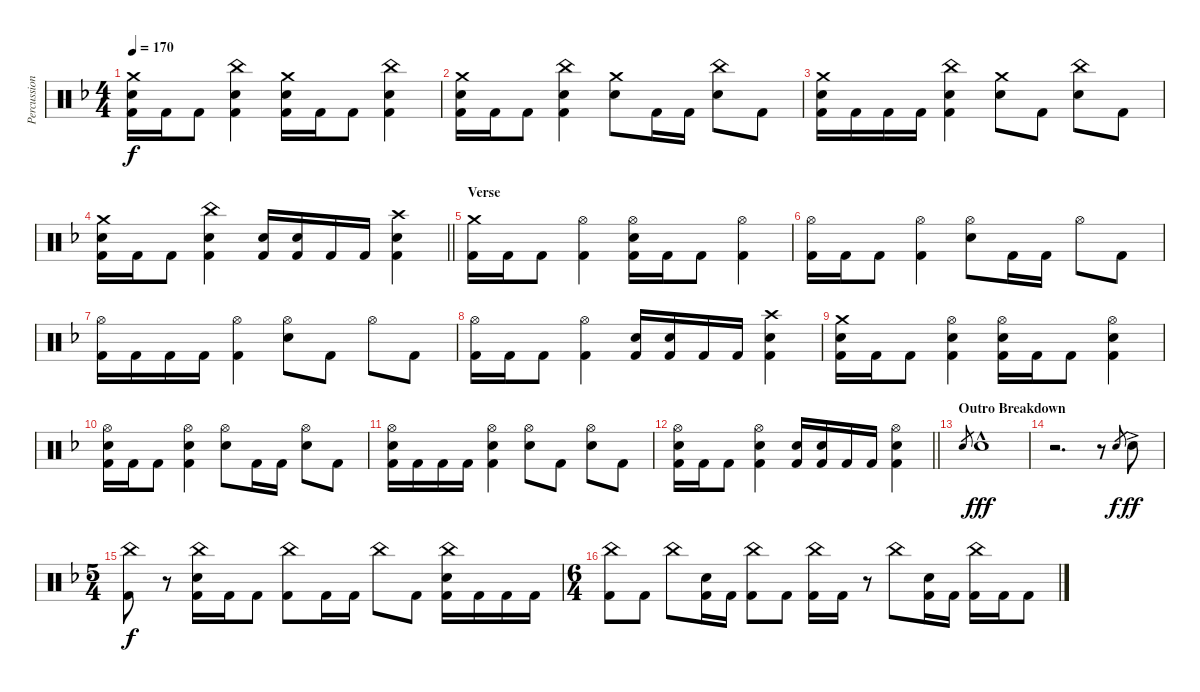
\track ("Percussion" "Percussion") {instrument percussion}
\staff {score}
\articulation defaults
\ts (4 4)
\tempo 170
\clef neutral
\ks dminor
("Crash medium (hit)" "Electric Snare (hit)" "Kick (hit) 2").16{dy f} "Kick (hit) 2".16 "Kick (hit) 2".8 ("China (hit)" "Electric Snare (hit)" "Kick (hit) 2").4 ("Crash medium (hit)" "Electric Snare (hit)" "Kick (hit) 2").16 "Kick (hit) 2".16 "Kick (hit) 2".8 ("China (hit)" "Electric Snare (hit)" "Kick (hit) 2").4 |
("Crash medium (hit)" "Electric Snare (hit)" "Kick (hit) 2").16 "Kick (hit) 2".16 "Kick (hit) 2".8 ("China (hit)" "Electric Snare (hit)" "Kick (hit) 2").4 ("Crash medium (hit)" "Electric Snare (hit)").8 "Kick (hit) 2".16 "Kick (hit) 2".16 ("China (hit)" "Electric Snare (hit)").8 "Kick (hit) 2".8 |
("Crash medium (hit)" "Electric Snare (hit)" "Kick (hit) 2").16 "Kick (hit) 2".16 "Kick (hit) 2".16 "Kick (hit) 2".16 ("China (hit)" "Electric Snare (hit)" "Kick (hit) 2").4 ("Crash medium (hit)" "Electric Snare (hit)").8 "Kick (hit) 2".8 ("China (hit)" "Electric Snare (hit)").8 "Kick (hit) 2".8 |
\barLineRight lightlight
("Crash medium (hit)" "Electric Snare (hit)" "Kick (hit) 2").16 "Kick (hit) 2".16 "Kick (hit) 2".8 ("China (hit)" "Electric Snare (hit)" "Kick (hit) 2").4 ("Electric Snare (hit)" "Kick (hit) 2").16 ("Electric Snare (hit)" "Kick (hit) 2").16 "Kick (hit) 2".16 "Kick (hit) 2".16 ("Crash high (hit)" "Electric Snare (hit)" "Kick (hit) 2").4 |
\section ("" "Verse")
("Crash medium (hit)" "Kick (hit) 2").16 "Kick (hit) 2".16 "Kick (hit) 2".8 ("Hi-Hat (open)" "Kick (hit) 2").4 ("Hi-Hat (open)" "Electric Snare (hit)" "Kick (hit) 2").16 "Kick (hit) 2".16 "Kick (hit) 2".8 ("Hi-Hat (open)" "Kick (hit) 2").4 |
("Hi-Hat (open)" "Kick (hit) 2").16 "Kick (hit) 2".16 "Kick (hit) 2".8 ("Hi-Hat (open)" "Kick (hit) 2").4 ("Hi-Hat (open)" "Electric Snare (hit)").8 "Kick (hit) 2".16 "Kick (hit) 2".16 "Hi-Hat (open)".8 "Kick (hit) 2".8 |
("Hi-Hat (open)" "Kick (hit) 2").16 "Kick (hit) 2".16 "Kick (hit) 2".16 "Kick (hit) 2".16 ("Hi-Hat (open)" "Kick (hit) 2").4 ("Hi-Hat (open)" "Electric Snare (hit)").8 "Kick (hit) 2".8 "Hi-Hat (open)".8 "Kick (hit) 2".8 |
("Hi-Hat (open)" "Kick (hit) 2").16 "Kick (hit) 2".16 "Kick (hit) 2".8 ("Hi-Hat (open)" "Kick (hit) 2").4 ("Electric Snare (hit)" "Kick (hit) 2").16 ("Electric Snare (hit)" "Kick (hit) 2").16 "Kick (hit) 2".16 "Kick (hit) 2".16 ("Crash high (hit)" "Electric Snare (hit)" "Kick (hit) 2").4 |
("Crash medium (hit)" "Electric Snare (hit)" "Kick (hit) 2").16 "Kick (hit) 2".16 "Kick (hit) 2".8 ("Hi-Hat (open)" "Electric Snare (hit)" "Kick (hit) 2").4 ("Hi-Hat (open)" "Electric Snare (hit)" "Kick (hit) 2").16 "Kick (hit) 2".16 "Kick (hit) 2".8 ("Hi-Hat (open)" "Electric Snare (hit)" "Kick (hit) 2").4 |
("Hi-Hat (open)" "Electric Snare (hit)" "Kick (hit) 2").16 "Kick (hit) 2".16 "Kick (hit) 2".8 ("Hi-Hat (open)" "Electric Snare (hit)" "Kick (hit) 2").4 ("Hi-Hat (open)" "Electric Snare (hit)").8 "Kick (hit) 2".16 "Kick (hit) 2".16 ("Hi-Hat (open)" "Electric Snare (hit)").8 "Kick (hit) 2".8 |
("Hi-Hat (open)" "Electric Snare (hit)" "Kick (hit) 2").16 "Kick (hit) 2".16 "Kick (hit) 2".16 "Kick (hit) 2".16 ("Hi-Hat (open)" "Electric Snare (hit)" "Kick (hit) 2").4 ("Hi-Hat (open)" "Electric Snare (hit)").8 "Kick (hit) 2".8 ("Hi-Hat (open)" "Electric Snare (hit)").8 "Kick (hit) 2".8 |
\barLineRight lightlight
("Hi-Hat (open)" "Electric Snare (hit)" "Kick (hit) 2").16 "Kick (hit) 2".16 "Kick (hit) 2".8 ("Hi-Hat (open)" "Electric Snare (hit)" "Kick (hit) 2").4 ("Electric Snare (hit)" "Kick (hit) 2").16 ("Electric Snare (hit)" "Kick (hit) 2").16 "Kick (hit) 2".16 "Kick (hit) 2".16 ("Hi-Hat (open)" "Electric Snare (hit)" "Kick (hit) 2").4 |
\section ("" "Outro Breakdown")
"Electric Snare (hit)".8{gr} "Electric Snare (hit)"{hac}.1{dy fff} |
r.2{d} r.8 "Electric Snare (hit)".8{gr dy f} "Electric Snare (hit)"{ac}.8{dy ff} |
\ts (5 4)
("China (hit)" "Kick (hit) 2").8{dy f} r.8 ("China (hit)" "Electric Snare (hit)" "Kick (hit) 2").16 "Kick (hit) 2".16 "Kick (hit) 2".8 ("China (hit)" "Kick (hit) 2").8 "Kick (hit) 2".16 "Kick (hit) 2".16 "China (hit)".8 "Kick (hit) 2".8 ("China (hit)" "Electric Snare (hit)" "Kick (hit) 2").16 "Kick (hit) 2".16 "Kick (hit) 2".16 "Kick (hit) 2".16 |
\ts (6 4)
("China (hit)" "Kick (hit) 2").8 "Kick (hit) 2".8 "China (hit)".8 ("Electric Snare (hit)" "Kick (hit) 2").16 "Kick (hit) 2".16 ("China (hit)" "Kick (hit) 2").8 "Kick (hit) 2".8 ("China (hit)" "Kick (hit) 2").16 "Kick (hit) 2".16 r.8 "China (hit)".8 ("Electric Snare (hit)" "Kick (hit) 2").16 "Kick (hit) 2".16 ("China (hit)" "Kick (hit) 2").16 "Kick (hit) 2".16 "Kick (hit) 2".8
